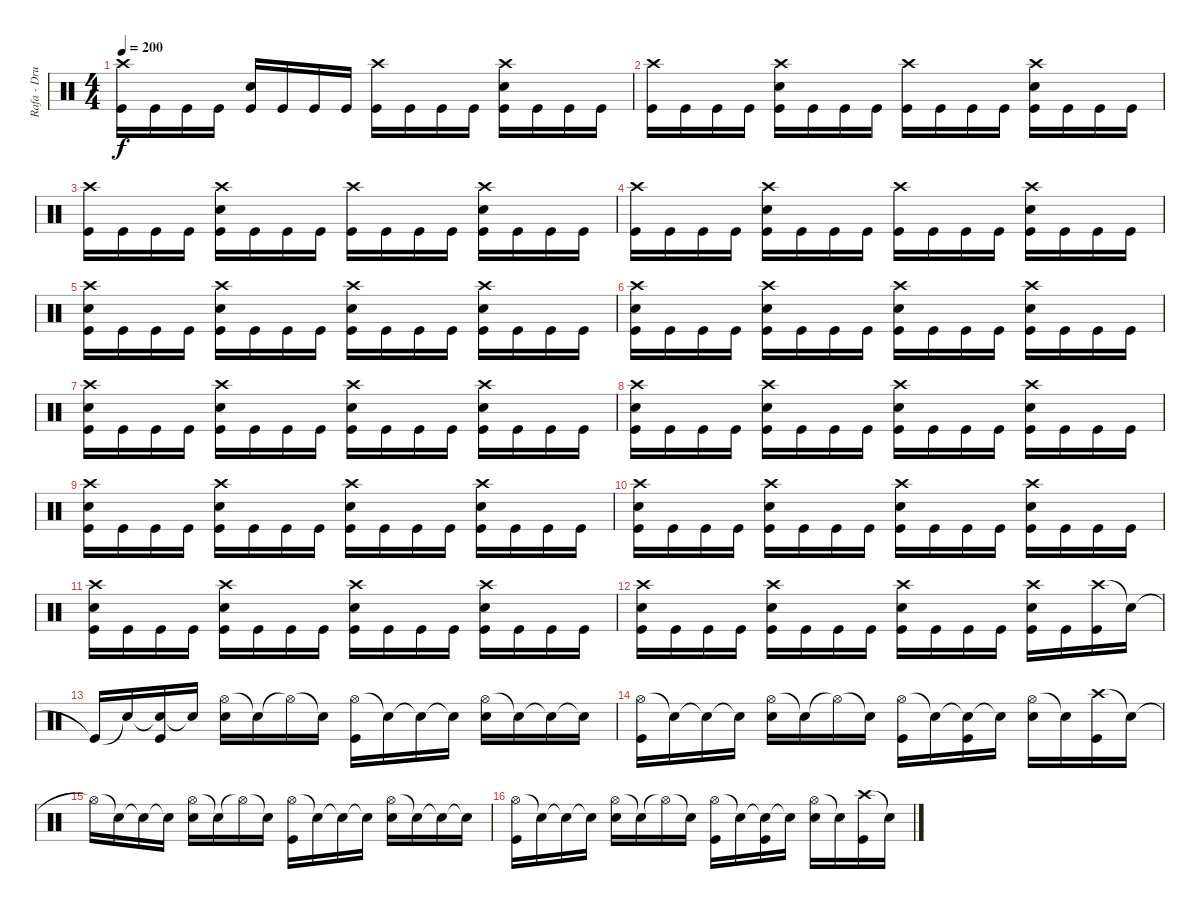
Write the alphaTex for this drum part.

\track ("Rafa - Drums" "Rafa - Dru") {instrument percussion}
\staff {score}
\articulation defaults
\ts (4 4)
\tempo 200
\clef neutral
\ks c
("Crash high (hit)" "Kick (hit)").16{dy f} "Kick (hit)".16 "Kick (hit)".16 "Kick (hit)".16 ("Electric Snare (hit)" "Kick (hit)").16 "Kick (hit)".16 "Kick (hit)".16 "Kick (hit)".16 ("Crash high (hit)" "Kick (hit)").16 "Kick (hit)".16 "Kick (hit)".16 "Kick (hit)".16 ("Crash high (hit)" "Electric Snare (hit)" "Kick (hit)").16 "Kick (hit)".16 "Kick (hit)".16 "Kick (hit)".16 |
("Crash high (hit)" "Kick (hit)").16 "Kick (hit)".16 "Kick (hit)".16 "Kick (hit)".16 ("Crash high (hit)" "Electric Snare (hit)" "Kick (hit)").16 "Kick (hit)".16 "Kick (hit)".16 "Kick (hit)".16 ("Crash high (hit)" "Kick (hit)").16 "Kick (hit)".16 "Kick (hit)".16 "Kick (hit)".16 ("Crash high (hit)" "Electric Snare (hit)" "Kick (hit)").16 "Kick (hit)".16 "Kick (hit)".16 "Kick (hit)".16 |
("Crash high (hit)" "Kick (hit)").16 "Kick (hit)".16 "Kick (hit)".16 "Kick (hit)".16 ("Crash high (hit)" "Electric Snare (hit)" "Kick (hit)").16 "Kick (hit)".16 "Kick (hit)".16 "Kick (hit)".16 ("Crash high (hit)" "Kick (hit)").16 "Kick (hit)".16 "Kick (hit)".16 "Kick (hit)".16 ("Crash high (hit)" "Electric Snare (hit)" "Kick (hit)").16 "Kick (hit)".16 "Kick (hit)".16 "Kick (hit)".16 |
("Crash high (hit)" "Kick (hit)").16 "Kick (hit)".16 "Kick (hit)".16 "Kick (hit)".16 ("Crash high (hit)" "Electric Snare (hit)" "Kick (hit)").16 "Kick (hit)".16 "Kick (hit)".16 "Kick (hit)".16 ("Crash high (hit)" "Kick (hit)").16 "Kick (hit)".16 "Kick (hit)".16 "Kick (hit)".16 ("Crash high (hit)" "Electric Snare (hit)" "Kick (hit)").16 "Kick (hit)".16 "Kick (hit)".16 "Kick (hit)".16 |
("Crash high (hit)" "Electric Snare (hit)" "Kick (hit)").16 "Kick (hit)".16 "Kick (hit)".16 "Kick (hit)".16 ("Crash high (hit)" "Electric Snare (hit)" "Kick (hit)").16 "Kick (hit)".16 "Kick (hit)".16 "Kick (hit)".16 ("Crash high (hit)" "Electric Snare (hit)" "Kick (hit)").16 "Kick (hit)".16 "Kick (hit)".16 "Kick (hit)".16 ("Crash high (hit)" "Electric Snare (hit)" "Kick (hit)").16 "Kick (hit)".16 "Kick (hit)".16 "Kick (hit)".16 |
("Crash high (hit)" "Electric Snare (hit)" "Kick (hit)").16 "Kick (hit)".16 "Kick (hit)".16 "Kick (hit)".16 ("Crash high (hit)" "Electric Snare (hit)" "Kick (hit)").16 "Kick (hit)".16 "Kick (hit)".16 "Kick (hit)".16 ("Crash high (hit)" "Electric Snare (hit)" "Kick (hit)").16 "Kick (hit)".16 "Kick (hit)".16 "Kick (hit)".16 ("Crash high (hit)" "Electric Snare (hit)" "Kick (hit)").16 "Kick (hit)".16 "Kick (hit)".16 "Kick (hit)".16 |
("Crash high (hit)" "Electric Snare (hit)" "Kick (hit)").16 "Kick (hit)".16 "Kick (hit)".16 "Kick (hit)".16 ("Crash high (hit)" "Electric Snare (hit)" "Kick (hit)").16 "Kick (hit)".16 "Kick (hit)".16 "Kick (hit)".16 ("Crash high (hit)" "Electric Snare (hit)" "Kick (hit)").16 "Kick (hit)".16 "Kick (hit)".16 "Kick (hit)".16 ("Crash high (hit)" "Electric Snare (hit)" "Kick (hit)").16 "Kick (hit)".16 "Kick (hit)".16 "Kick (hit)".16 |
("Crash high (hit)" "Electric Snare (hit)" "Kick (hit)").16 "Kick (hit)".16 "Kick (hit)".16 "Kick (hit)".16 ("Crash high (hit)" "Electric Snare (hit)" "Kick (hit)").16 "Kick (hit)".16 "Kick (hit)".16 "Kick (hit)".16 ("Crash high (hit)" "Electric Snare (hit)" "Kick (hit)").16 "Kick (hit)".16 "Kick (hit)".16 "Kick (hit)".16 ("Crash high (hit)" "Electric Snare (hit)" "Kick (hit)").16 "Kick (hit)".16 "Kick (hit)".16 "Kick (hit)".16 |
("Crash high (hit)" "Electric Snare (hit)" "Kick (hit)").16 "Kick (hit)".16 "Kick (hit)".16 "Kick (hit)".16 ("Crash high (hit)" "Electric Snare (hit)" "Kick (hit)").16 "Kick (hit)".16 "Kick (hit)".16 "Kick (hit)".16 ("Crash high (hit)" "Electric Snare (hit)" "Kick (hit)").16 "Kick (hit)".16 "Kick (hit)".16 "Kick (hit)".16 ("Crash high (hit)" "Electric Snare (hit)" "Kick (hit)").16 "Kick (hit)".16 "Kick (hit)".16 "Kick (hit)".16 |
("Crash high (hit)" "Electric Snare (hit)" "Kick (hit)").16 "Kick (hit)".16 "Kick (hit)".16 "Kick (hit)".16 ("Crash high (hit)" "Electric Snare (hit)" "Kick (hit)").16 "Kick (hit)".16 "Kick (hit)".16 "Kick (hit)".16 ("Crash high (hit)" "Electric Snare (hit)" "Kick (hit)").16 "Kick (hit)".16 "Kick (hit)".16 "Kick (hit)".16 ("Crash high (hit)" "Electric Snare (hit)" "Kick (hit)").16 "Kick (hit)".16 "Kick (hit)".16 "Kick (hit)".16 |
("Crash high (hit)" "Electric Snare (hit)" "Kick (hit)").16 "Kick (hit)".16 "Kick (hit)".16 "Kick (hit)".16 ("Crash high (hit)" "Electric Snare (hit)" "Kick (hit)").16 "Kick (hit)".16 "Kick (hit)".16 "Kick (hit)".16 ("Crash high (hit)" "Electric Snare (hit)" "Kick (hit)").16 "Kick (hit)".16 "Kick (hit)".16 "Kick (hit)".16 ("Crash high (hit)" "Electric Snare (hit)" "Kick (hit)").16 "Kick (hit)".16 "Kick (hit)".16 "Kick (hit)".16 |
("Crash high (hit)" "Electric Snare (hit)" "Kick (hit)").16 "Kick (hit)".16 "Kick (hit)".16 "Kick (hit)".16 ("Crash high (hit)" "Electric Snare (hit)" "Kick (hit)").16 "Kick (hit)".16 "Kick (hit)".16 "Kick (hit)".16 ("Crash high (hit)" "Electric Snare (hit)" "Kick (hit)").16 "Kick (hit)".16 "Kick (hit)".16 "Kick (hit)".16 ("Crash high (hit)" "Electric Snare (hit)" "Kick (hit)").16 "Kick (hit)".16 ("Crash high (hit)" "Kick (hit)").16 "Snare (hit)"{t}.16 |
"Kick (hit)"{t}.16 "Snare (hit)"{t}.16 ("Snare (hit)"{t} "Kick (hit)").16 "Snare (hit)"{t}.16 ("Hi-Hat (open)" "Electric Snare (hit)").16 "Snare (hit)"{t}.16 "Hi-Hat (open)"{t}.16 "Snare (hit)"{t}.16 ("Hi-Hat (open)" "Kick (hit)").16 "Snare (hit)"{t}.16 "Snare (hit)"{t}.16 "Snare (hit)"{t}.16 ("Hi-Hat (open)" "Electric Snare (hit)").16 "Snare (hit)"{t}.16 "Snare (hit)"{t}.16 "Snare (hit)"{t}.16 |
("Hi-Hat (open)" "Kick (hit)").16 "Snare (hit)"{t}.16 "Snare (hit)"{t}.16 "Snare (hit)"{t}.16 ("Hi-Hat (open)" "Electric Snare (hit)").16 "Snare (hit)"{t}.16 "Hi-Hat (open)"{t}.16 "Snare (hit)"{t}.16 ("Hi-Hat (open)" "Kick (hit)").16 "Snare (hit)"{t}.16 ("Snare (hit)"{t} "Kick (hit)").16 "Snare (hit)"{t}.16 ("Hi-Hat (open)" "Electric Snare (hit)").16 "Snare (hit)"{t}.16 ("Crash high (hit)" "Kick (hit)").16 "Snare (hit)"{t}.16 |
"Hi-Hat (open)"{t}.16 "Snare (hit)"{t}.16 "Snare (hit)"{t}.16 "Snare (hit)"{t}.16 ("Hi-Hat (open)" "Electric Snare (hit)").16 "Snare (hit)"{t}.16 "Hi-Hat (open)"{t}.16 "Snare (hit)"{t}.16 ("Hi-Hat (open)" "Kick (hit)").16 "Snare (hit)"{t}.16 "Snare (hit)"{t}.16 "Snare (hit)"{t}.16 ("Hi-Hat (open)" "Electric Snare (hit)").16 "Snare (hit)"{t}.16 "Snare (hit)"{t}.16 "Snare (hit)"{t}.16 |
("Hi-Hat (open)" "Kick (hit)").16 "Snare (hit)"{t}.16 "Snare (hit)"{t}.16 "Snare (hit)"{t}.16 ("Hi-Hat (open)" "Electric Snare (hit)").16 "Snare (hit)"{t}.16 "Hi-Hat (open)"{t}.16 "Snare (hit)"{t}.16 ("Hi-Hat (open)" "Kick (hit)").16 "Snare (hit)"{t}.16 ("Snare (hit)"{t} "Kick (hit)").16 "Snare (hit)"{t}.16 ("Hi-Hat (open)" "Electric Snare (hit)").16 "Snare (hit)"{t}.16 ("Crash high (hit)" "Kick (hit)").16 "Snare (hit)"{t}.16
